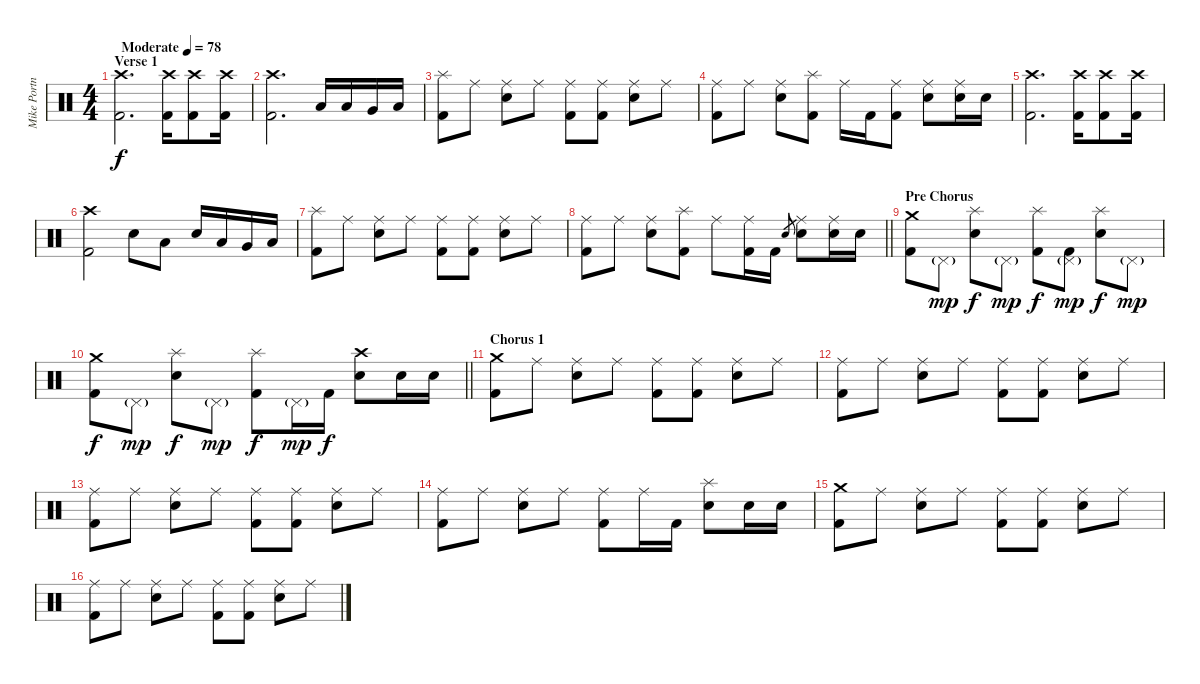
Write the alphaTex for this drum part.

\track ("Mike Portnoy" "Mike Portn") {instrument percussion}
\staff {score}
\articulation defaults
\ts (4 4)
\section ("" "Verse 1")
\tempo (78 "Moderate")
\clef neutral
\ks c
("Crash high (hit)" "Kick (hit) 2").2{d dy f} ("Crash high (hit)" "Kick (hit) 2").16 ("Crash high (hit)" "Kick (hit) 2").8 ("Crash high (hit)" "Kick (hit) 2").16 |
("Crash high (hit)" "Kick (hit) 2").2{d} "Low Tom (hit)".16 "Low Tom (hit)".16 "Very Low Tom (hit)".16 "Low Floor Tom (hit)".16 |
("Splash (hit)" "Kick (hit) 2").8 "Ride (middle)".8 ("Ride (middle)" "Electric Snare (hit)").8 "Ride (middle)".8 ("Ride (middle)" "Kick (hit) 2").8 ("Ride (middle)" "Kick (hit) 2").8 ("Ride (middle)" "Electric Snare (hit)").8 "Ride (middle)".8 |
("Ride (middle)" "Kick (hit) 2").8 "Ride (middle)".8 ("Ride (middle)" "Electric Snare (hit)").8 ("Splash (hit)" "Kick (hit) 2").8 "Ride (middle)".16 "Kick (hit) 2".16 ("Ride (middle)" "Kick (hit) 2").8 ("Ride (middle)" "Electric Snare (hit)").8 ("Ride (middle)" "Electric Snare (hit)").16 "Electric Snare (hit)".16 |
("Crash high (hit)" "Kick (hit) 2").2{d} ("Crash high (hit)" "Kick (hit) 2").16 ("Crash high (hit)" "Kick (hit) 2").8 ("Crash high (hit)" "Kick (hit) 2").16 |
("Crash high (hit)" "Kick (hit) 2").2 "Electric Snare (hit)".8 "Low Tom (hit)".8 "Electric Snare (hit)".16 "Low Tom (hit)".16 "Very Low Tom (hit)".16 "Low Floor Tom (hit)".16 |
("Splash (hit)" "Kick (hit) 2").8 "Ride (middle)".8 ("Ride (middle)" "Electric Snare (hit)").8 "Ride (middle)".8 ("Ride (middle)" "Kick (hit) 2").8 ("Ride (middle)" "Kick (hit) 2").8 ("Ride (middle)" "Electric Snare (hit)").8 "Ride (middle)".8 |
\barLineRight lightlight
("Ride (middle)" "Kick (hit) 2").8 "Ride (middle)".8 ("Ride (middle)" "Electric Snare (hit)").8 ("Splash (hit)" "Kick (hit) 2").8 "Ride (middle)".8 ("Ride (middle)" "Kick (hit) 2").16 "Kick (hit) 2".16 "Electric Snare (hit)".8{gr} ("Ride (middle)" "Electric Snare (hit)").8 ("Ride (middle)" "Electric Snare (hit)").16 "Electric Snare (hit)".16 |
\section ("" "Pre Chorus")
("Crash medium (hit)" "Kick (hit) 2").8 "Pedal Hi-Hat (hit)"{g}.8{dy mp} ("Splash (hit)" "Electric Snare (hit)").8{dy f} "Pedal Hi-Hat (hit)"{g}.8{dy mp} ("Splash (hit)" "Kick (hit) 2").8{dy f} ("Pedal Hi-Hat (hit)"{g} "Kick (hit) 2").8{dy mp} ("Splash (hit)" "Electric Snare (hit)").8{dy f} "Pedal Hi-Hat (hit)"{g}.8{dy mp} |
\barLineRight lightlight
("Crash medium (hit)" "Kick (hit) 2").8{dy f} "Pedal Hi-Hat (hit)"{g}.8{dy mp} ("Splash (hit)" "Electric Snare (hit)").8{dy f} "Pedal Hi-Hat (hit)"{g}.8{dy mp} ("Splash (hit)" "Kick (hit) 2").8{dy f} "Pedal Hi-Hat (hit)"{g}.16{dy mp} "Kick (hit) 2".16{dy f} ("Crash high (hit)" "Electric Snare (hit)").8 "Electric Snare (hit)".16 "Electric Snare (hit)".16 |
\section ("" "Chorus 1")
("Crash medium (hit)" "Kick (hit) 2").8 "Ride (middle)".8 ("Ride (middle)" "Electric Snare (hit)").8 "Ride (middle)".8 ("Ride (middle)" "Kick (hit) 2").8 ("Ride (middle)" "Kick (hit) 2").8 ("Ride (middle)" "Electric Snare (hit)").8 "Ride (middle)".8 |
("Ride (middle)" "Kick (hit) 2").8 "Ride (middle)".8 ("Ride (middle)" "Electric Snare (hit)").8 "Ride (middle)".8 ("Ride (middle)" "Kick (hit) 2").8 ("Ride (middle)" "Kick (hit) 2").8 ("Ride (middle)" "Electric Snare (hit)").8 "Ride (middle)".8 |
("Ride (middle)" "Kick (hit) 2").8 "Ride (middle)".8 ("Ride (middle)" "Electric Snare (hit)").8 "Ride (middle)".8 ("Ride (middle)" "Kick (hit) 2").8 ("Ride (middle)" "Kick (hit) 2").8 ("Ride (middle)" "Electric Snare (hit)").8 "Ride (middle)".8 |
("Ride (middle)" "Kick (hit) 2").8 "Ride (middle)".8 ("Ride (middle)" "Electric Snare (hit)").8 "Ride (middle)".8 ("Ride (middle)" "Kick (hit) 2").8 "Ride (middle)".16 "Kick (hit) 2".16 ("Splash (hit)" "Electric Snare (hit)").8 "Electric Snare (hit)".16 "Electric Snare (hit)".16 |
("Crash medium (hit)" "Kick (hit) 2").8 "Ride (middle)".8 ("Ride (middle)" "Electric Snare (hit)").8 "Ride (middle)".8 ("Ride (middle)" "Kick (hit) 2").8 ("Ride (middle)" "Kick (hit) 2").8 ("Ride (middle)" "Electric Snare (hit)").8 "Ride (middle)".8 |
("Ride (middle)" "Kick (hit) 2").8 "Ride (middle)".8 ("Ride (middle)" "Electric Snare (hit)").8 "Ride (middle)".8 ("Ride (middle)" "Kick (hit) 2").8 ("Ride (middle)" "Kick (hit) 2").8 ("Ride (middle)" "Electric Snare (hit)").8 "Ride (middle)".8
